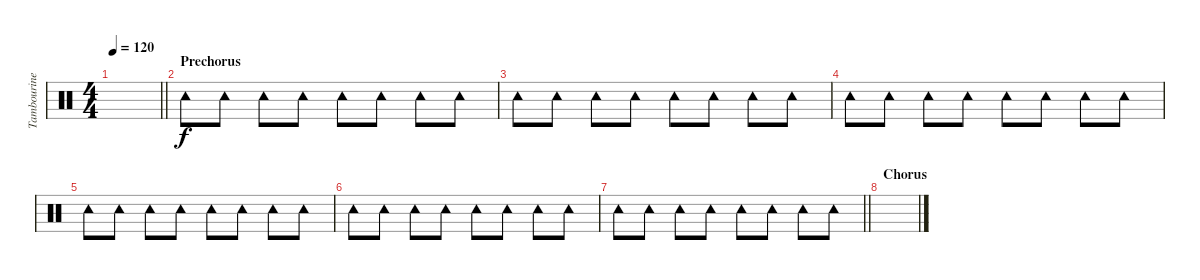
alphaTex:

\track ("Tambourine" "Tambourine") {instrument percussion}
\staff {score}
\articulation defaults
\ts (4 4)
\tempo 120
\clef neutral
\barLineRight lightlight
\ks c
|
\section ("" "Prechorus")
"Tambourine (hit)".8 "Tambourine (hit)".8 "Tambourine (hit)".8 "Tambourine (hit)".8 "Tambourine (hit)".8 "Tambourine (hit)".8 "Tambourine (hit)".8 "Tambourine (hit)".8 |
"Tambourine (hit)".8 "Tambourine (hit)".8 "Tambourine (hit)".8 "Tambourine (hit)".8 "Tambourine (hit)".8 "Tambourine (hit)".8 "Tambourine (hit)".8 "Tambourine (hit)".8 |
"Tambourine (hit)".8 "Tambourine (hit)".8 "Tambourine (hit)".8 "Tambourine (hit)".8 "Tambourine (hit)".8 "Tambourine (hit)".8 "Tambourine (hit)".8 "Tambourine (hit)".8 |
"Tambourine (hit)".8 "Tambourine (hit)".8 "Tambourine (hit)".8 "Tambourine (hit)".8 "Tambourine (hit)".8 "Tambourine (hit)".8 "Tambourine (hit)".8 "Tambourine (hit)".8 |
"Tambourine (hit)".8 "Tambourine (hit)".8 "Tambourine (hit)".8 "Tambourine (hit)".8 "Tambourine (hit)".8 "Tambourine (hit)".8 "Tambourine (hit)".8 "Tambourine (hit)".8 |
\barLineRight lightlight "Tambourine (hit)".8 "Tambourine (hit)".8 "Tambourine (hit)".8 "Tambourine (hit)".8 "Tambourine (hit)".8 "Tambourine (hit)".8 "Tambourine (hit)".8 "Tambourine (hit)".8
|
\section ("" "Chorus")
